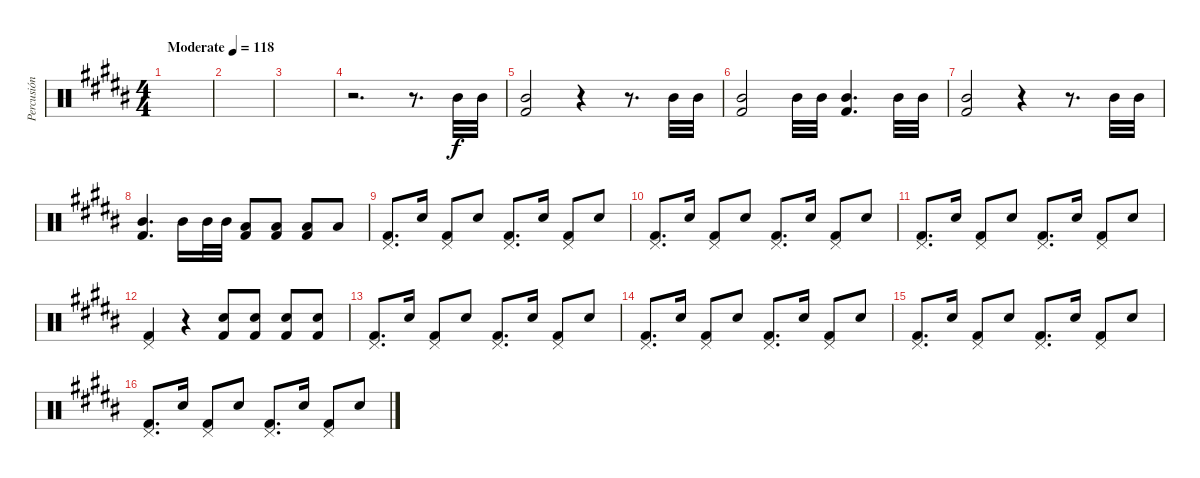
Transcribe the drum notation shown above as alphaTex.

\track ("Percusión" "Percusión") {instrument percussion}
\staff {score}
\articulation defaults
\ts (4 4)
\tempo (118 "Moderate")
\clef neutral
\ks b
|
|
|
r.2{d} r.8{d} "Mid Tom (hit)".32 "Mid Tom (hit)".32 |
("Mid Tom (hit)" "Kick (hit) 2").2 r.4 r.8{d} "Mid Tom (hit)".32 "Mid Tom (hit)".32 |
("Mid Tom (hit)" "Kick (hit) 2").2 "Mid Tom (hit)".32 "Mid Tom (hit)".32 ("Mid Tom (hit)" "Kick (hit) 2").4{d} "Mid Tom (hit)".32 "Mid Tom (hit)".32 |
("Mid Tom (hit)" "Kick (hit) 2").2 r.4 r.8{d} "Mid Tom (hit)".32 "Mid Tom (hit)".32 |
("Mid Tom (hit)" "Kick (hit) 2").4{d} "Mid Tom (hit)".16 "Mid Tom (hit)".32 "Mid Tom (hit)".32 ("Low Tom (hit)" "Kick (hit) 2").8 ("Low Tom (hit)" "Kick (hit) 2").8 ("Low Tom (hit)" "Kick (hit) 2").8 "Low Tom (hit)".8 |
("Pedal Hi-Hat (hit)" "Kick (hit) 2").8{d} "Snare (hit) 2".16 ("Pedal Hi-Hat (hit)" "Kick (hit) 2").8 "Snare (hit) 2".8 ("Pedal Hi-Hat (hit)" "Kick (hit) 2").8{d} "Snare (hit) 2".16 ("Pedal Hi-Hat (hit)" "Kick (hit) 2").8 "Snare (hit) 2".8 |
("Pedal Hi-Hat (hit)" "Kick (hit) 2").8{d} "Snare (hit) 2".16 ("Pedal Hi-Hat (hit)" "Kick (hit) 2").8 "Snare (hit) 2".8 ("Pedal Hi-Hat (hit)" "Kick (hit) 2").8{d} "Snare (hit) 2".16 ("Pedal Hi-Hat (hit)" "Kick (hit) 2").8 "Snare (hit) 2".8 |
("Pedal Hi-Hat (hit)" "Kick (hit) 2").8{d} "Snare (hit) 2".16 ("Pedal Hi-Hat (hit)" "Kick (hit) 2").8 "Snare (hit) 2".8 ("Pedal Hi-Hat (hit)" "Kick (hit) 2").8{d} "Snare (hit) 2".16 ("Pedal Hi-Hat (hit)" "Kick (hit) 2").8 "Snare (hit) 2".8 |
("Pedal Hi-Hat (hit)" "Kick (hit) 2").4 r.4 ("Snare (hit) 2" "Kick (hit) 2").8 ("Snare (hit) 2" "Kick (hit) 2").8 ("Snare (hit) 2" "Kick (hit) 2").8 ("Snare (hit) 2" "Kick (hit) 2").8 |
("Pedal Hi-Hat (hit)" "Kick (hit) 2").8{d} "Snare (hit) 2".16 ("Pedal Hi-Hat (hit)" "Kick (hit) 2").8 "Snare (hit) 2".8 ("Pedal Hi-Hat (hit)" "Kick (hit) 2").8{d} "Snare (hit) 2".16 ("Pedal Hi-Hat (hit)" "Kick (hit) 2").8 "Snare (hit) 2".8 |
("Pedal Hi-Hat (hit)" "Kick (hit) 2").8{d} "Snare (hit) 2".16 ("Pedal Hi-Hat (hit)" "Kick (hit) 2").8 "Snare (hit) 2".8 ("Pedal Hi-Hat (hit)" "Kick (hit) 2").8{d} "Snare (hit) 2".16 ("Pedal Hi-Hat (hit)" "Kick (hit) 2").8 "Snare (hit) 2".8 |
("Pedal Hi-Hat (hit)" "Kick (hit) 2").8{d} "Snare (hit) 2".16 ("Pedal Hi-Hat (hit)" "Kick (hit) 2").8 "Snare (hit) 2".8 ("Pedal Hi-Hat (hit)" "Kick (hit) 2").8{d} "Snare (hit) 2".16 ("Pedal Hi-Hat (hit)" "Kick (hit) 2").8 "Snare (hit) 2".8 |
("Pedal Hi-Hat (hit)" "Kick (hit) 2").8{d} "Snare (hit) 2".16 ("Pedal Hi-Hat (hit)" "Kick (hit) 2").8 "Snare (hit) 2".8 ("Pedal Hi-Hat (hit)" "Kick (hit) 2").8{d} "Snare (hit) 2".16 ("Pedal Hi-Hat (hit)" "Kick (hit) 2").8 "Snare (hit) 2".8
